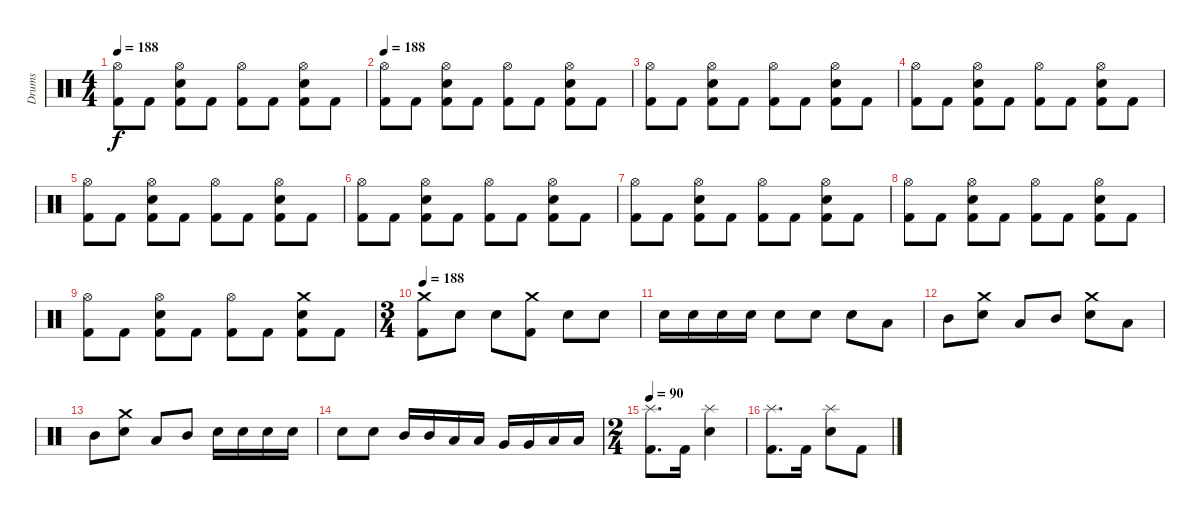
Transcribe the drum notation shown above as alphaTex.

\track ("Drums" "Drums") {instrument percussion}
\staff {score}
\articulation defaults
\ts (4 4)
\tempo 188
\clef neutral
\ks c
("Hi-Hat (open)" "Kick (hit) 2").8{dy f} "Kick (hit) 2".8 ("Electric Snare (hit)" "Hi-Hat (open)" "Kick (hit) 2").8 "Kick (hit) 2".8 ("Hi-Hat (open)" "Kick (hit) 2").8 "Kick (hit) 2".8 ("Electric Snare (hit)" "Hi-Hat (open)" "Kick (hit) 2").8 "Kick (hit) 2".8 |
\tempo 188
("Hi-Hat (open)" "Kick (hit) 2").8 "Kick (hit) 2".8 ("Electric Snare (hit)" "Hi-Hat (open)" "Kick (hit) 2").8 "Kick (hit) 2".8 ("Hi-Hat (open)" "Kick (hit) 2").8 "Kick (hit) 2".8 ("Electric Snare (hit)" "Hi-Hat (open)" "Kick (hit) 2").8 "Kick (hit) 2".8 |
("Hi-Hat (open)" "Kick (hit) 2").8 "Kick (hit) 2".8 ("Electric Snare (hit)" "Hi-Hat (open)" "Kick (hit) 2").8 "Kick (hit) 2".8 ("Hi-Hat (open)" "Kick (hit) 2").8 "Kick (hit) 2".8 ("Electric Snare (hit)" "Hi-Hat (open)" "Kick (hit) 2").8 "Kick (hit) 2".8 |
("Hi-Hat (open)" "Kick (hit) 2").8 "Kick (hit) 2".8 ("Electric Snare (hit)" "Hi-Hat (open)" "Kick (hit) 2").8 "Kick (hit) 2".8 ("Hi-Hat (open)" "Kick (hit) 2").8 "Kick (hit) 2".8 ("Electric Snare (hit)" "Hi-Hat (open)" "Kick (hit) 2").8 "Kick (hit) 2".8 |
("Hi-Hat (open)" "Kick (hit) 2").8 "Kick (hit) 2".8 ("Electric Snare (hit)" "Hi-Hat (open)" "Kick (hit) 2").8 "Kick (hit) 2".8 ("Hi-Hat (open)" "Kick (hit) 2").8 "Kick (hit) 2".8 ("Electric Snare (hit)" "Hi-Hat (open)" "Kick (hit) 2").8 "Kick (hit) 2".8 |
("Hi-Hat (open)" "Kick (hit) 2").8 "Kick (hit) 2".8 ("Electric Snare (hit)" "Hi-Hat (open)" "Kick (hit) 2").8 "Kick (hit) 2".8 ("Hi-Hat (open)" "Kick (hit) 2").8 "Kick (hit) 2".8 ("Electric Snare (hit)" "Hi-Hat (open)" "Kick (hit) 2").8 "Kick (hit) 2".8 |
("Hi-Hat (open)" "Kick (hit) 2").8 "Kick (hit) 2".8 ("Electric Snare (hit)" "Hi-Hat (open)" "Kick (hit) 2").8 "Kick (hit) 2".8 ("Hi-Hat (open)" "Kick (hit) 2").8 "Kick (hit) 2".8 ("Electric Snare (hit)" "Hi-Hat (open)" "Kick (hit) 2").8 "Kick (hit) 2".8 |
("Hi-Hat (open)" "Kick (hit) 2").8 "Kick (hit) 2".8 ("Electric Snare (hit)" "Hi-Hat (open)" "Kick (hit) 2").8 "Kick (hit) 2".8 ("Hi-Hat (open)" "Kick (hit) 2").8 "Kick (hit) 2".8 ("Electric Snare (hit)" "Hi-Hat (open)" "Kick (hit) 2").8 "Kick (hit) 2".8 |
("Hi-Hat (open)" "Kick (hit) 2").8 "Kick (hit) 2".8 ("Electric Snare (hit)" "Hi-Hat (open)" "Kick (hit) 2").8 "Kick (hit) 2".8 ("Hi-Hat (open)" "Kick (hit) 2").8 "Kick (hit) 2".8 ("Electric Snare (hit)" "Crash medium (hit)" "Kick (hit) 2").8 "Kick (hit) 2".8 |
\ts (3 4)
\tempo 188
("Crash medium (hit)" "Kick (hit) 2").8 "Electric Snare (hit)".8 "Electric Snare (hit)".8 ("Crash medium (hit)" "Kick (hit) 2").8 "Electric Snare (hit)".8 "Electric Snare (hit)".8 |
"Electric Snare (hit)".16 "Electric Snare (hit)".16 "Electric Snare (hit)".16 "Electric Snare (hit)".16 "Electric Snare (hit)".8 "Electric Snare (hit)".8 "Electric Snare (hit)".8 "Low Tom (hit)".8 |
"Mid Tom (hit)".8 ("Electric Snare (hit)" "Crash medium (hit)").8 "Low Tom (hit)".8 "Mid Tom (hit)".8 ("Electric Snare (hit)" "Crash medium (hit)").8 "Low Tom (hit)".8 |
"Mid Tom (hit)".8 ("Electric Snare (hit)" "Crash medium (hit)").8 "Low Tom (hit)".8 "Mid Tom (hit)".8 "Electric Snare (hit)".16 "Electric Snare (hit)".16 "Electric Snare (hit)".16 "Electric Snare (hit)".16 |
"Electric Snare (hit)".8 "Electric Snare (hit)".8 "Mid Tom (hit)".16 "Mid Tom (hit)".16 "Low Tom (hit)".16 "Low Tom (hit)".16 "Very Low Tom (hit)".16 "Very Low Tom (hit)".16 "Low Floor Tom (hit)".16 "Low Floor Tom (hit)".16 |
\ts (2 4)
\tempo 90
("Splash (hit)" "Kick (hit) 2").8{d} "Kick (hit) 2".16 ("Electric Snare (hit)" "Splash (hit)").4 |
("Splash (hit)" "Kick (hit) 2").8{d} "Kick (hit) 2".16 ("Electric Snare (hit)" "Splash (hit)").8 "Kick (hit) 2".8
